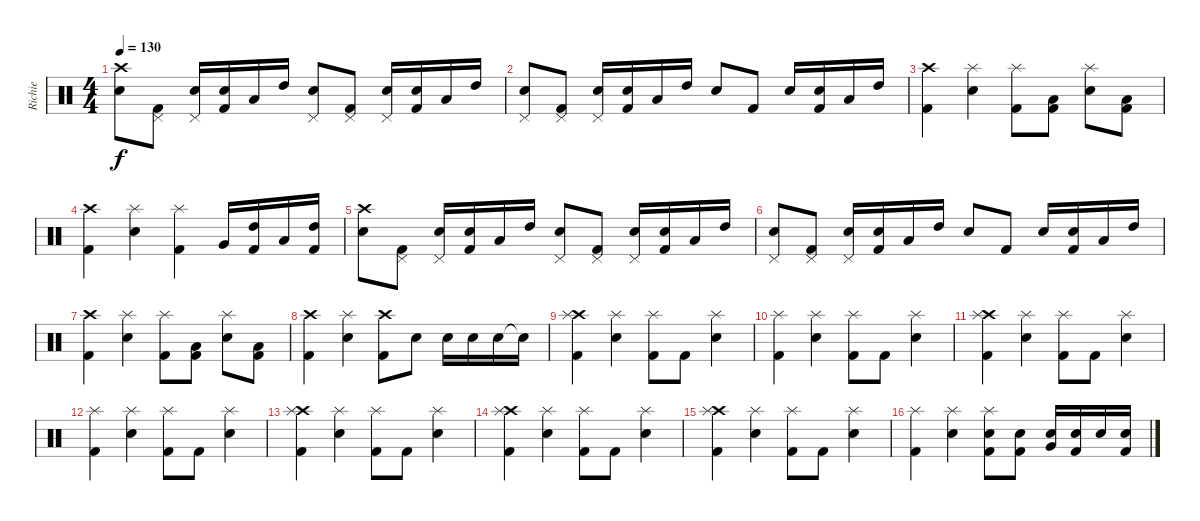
\track ("Richie" "Richie") {instrument percussion}
\staff {score}
\articulation defaults
\ts (4 4)
\tempo 130
\clef neutral
\ks c
("Crash high (hit)" "Snare (hit) 2").8{dy f} ("Pedal Hi-Hat (hit)" "Kick (hit) 2").8 ("Pedal Hi-Hat (hit)" "Electric Snare (hit)").16 ("Electric Snare (hit)" "Kick (hit) 2").16 "Low Tom (hit)".16 "High Tom (hit)".16 ("Pedal Hi-Hat (hit)" "Snare (hit) 2").8 ("Pedal Hi-Hat (hit)" "Kick (hit) 2").8 ("Pedal Hi-Hat (hit)" "Electric Snare (hit)").16 ("Electric Snare (hit)" "Kick (hit) 2").16 "Low Tom (hit)".16 "High Tom (hit)".16 |
("Pedal Hi-Hat (hit)" "Snare (hit) 2").8 ("Pedal Hi-Hat (hit)" "Kick (hit) 2").8 ("Pedal Hi-Hat (hit)" "Electric Snare (hit)").16 ("Electric Snare (hit)" "Kick (hit) 2").16 "Low Tom (hit)".16 "High Tom (hit)".16 "Snare (hit) 2".8 "Kick (hit) 2".8 "Electric Snare (hit)".16 ("Electric Snare (hit)" "Kick (hit) 2").16 "Low Tom (hit)".16 "High Tom (hit)".16 |
("Crash high (hit)" "Kick (hit) 2").4 ("Splash (hit)" "Electric Snare (hit)").4 ("Splash (hit)" "Kick (hit) 2").8 ("Low Tom (hit)" "Kick (hit) 2").8 ("Splash (hit)" "Electric Snare (hit)").8 ("Low Tom (hit)" "Kick (hit) 2").8 |
("Crash high (hit)" "Kick (hit) 2").4 ("Splash (hit)" "Electric Snare (hit)").4 ("Splash (hit)" "Kick (hit) 2").4 "Very Low Tom (hit)".16 ("High Tom (hit)" "Kick (hit) 2").16 "Low Tom (hit)".16 ("High Tom (hit)" "Kick (hit) 2").16 |
("Crash high (hit)" "Snare (hit) 2").8 ("Pedal Hi-Hat (hit)" "Kick (hit) 2").8 ("Pedal Hi-Hat (hit)" "Electric Snare (hit)").16 ("Electric Snare (hit)" "Kick (hit) 2").16 "Low Tom (hit)".16 "High Tom (hit)".16 ("Pedal Hi-Hat (hit)" "Snare (hit) 2").8 ("Pedal Hi-Hat (hit)" "Kick (hit) 2").8 ("Pedal Hi-Hat (hit)" "Electric Snare (hit)").16 ("Electric Snare (hit)" "Kick (hit) 2").16 "Low Tom (hit)".16 "High Tom (hit)".16 |
("Pedal Hi-Hat (hit)" "Snare (hit) 2").8 ("Pedal Hi-Hat (hit)" "Kick (hit) 2").8 ("Pedal Hi-Hat (hit)" "Electric Snare (hit)").16 ("Electric Snare (hit)" "Kick (hit) 2").16 "Low Tom (hit)".16 "High Tom (hit)".16 "Snare (hit) 2".8 "Kick (hit) 2".8 "Electric Snare (hit)".16 ("Electric Snare (hit)" "Kick (hit) 2").16 "Low Tom (hit)".16 "High Tom (hit)".16 |
("Crash high (hit)" "Kick (hit) 2").4 ("Splash (hit)" "Electric Snare (hit)").4 ("Splash (hit)" "Kick (hit) 2").8 ("Low Tom (hit)" "Kick (hit) 2").8 ("Splash (hit)" "Electric Snare (hit)").8 ("Low Tom (hit)" "Kick (hit) 2").8 |
("Crash high (hit)" "Kick (hit) 2").4 ("Splash (hit)" "Electric Snare (hit)").4 ("Crash high (hit)" "Kick (hit) 2").8 "Snare (hit) 2".8 "Snare (hit) 2".16 "Snare (hit) 2".16 "Snare (hit) 2".16 "Electric Snare (hit)"{t}.16 |
("Crash high (hit)" "Splash (hit)" "Kick (hit) 2").4 ("Splash (hit)" "Snare (hit) 2").4 ("Splash (hit)" "Kick (hit) 2").8 "Kick (hit) 2".8 ("Splash (hit)" "Snare (hit) 2").4 |
("Splash (hit)" "Kick (hit) 2").4 ("Splash (hit)" "Snare (hit) 2").4 ("Splash (hit)" "Kick (hit) 2").8 "Kick (hit) 2".8 ("Splash (hit)" "Snare (hit) 2").4 |
("Crash high (hit)" "Splash (hit)" "Kick (hit) 2").4 ("Splash (hit)" "Snare (hit) 2").4 ("Splash (hit)" "Kick (hit) 2").8 "Kick (hit) 2".8 ("Splash (hit)" "Snare (hit) 2").4 |
("Splash (hit)" "Kick (hit) 2").4 ("Splash (hit)" "Snare (hit) 2").4 ("Splash (hit)" "Kick (hit) 2").8 "Kick (hit) 2".8 ("Splash (hit)" "Snare (hit) 2").4 |
("Crash high (hit)" "Splash (hit)" "Kick (hit) 2").4 ("Splash (hit)" "Snare (hit) 2").4 ("Splash (hit)" "Kick (hit) 2").8 "Kick (hit) 2".8 ("Splash (hit)" "Snare (hit) 2").4 |
("Crash high (hit)" "Splash (hit)" "Kick (hit) 2").4 ("Splash (hit)" "Snare (hit) 2").4 ("Splash (hit)" "Kick (hit) 2").8 "Kick (hit) 2".8 ("Splash (hit)" "Snare (hit) 2").4 |
("Crash high (hit)" "Splash (hit)" "Kick (hit) 2").4 ("Splash (hit)" "Snare (hit) 2").4 ("Splash (hit)" "Kick (hit) 2").8 "Kick (hit) 2".8 ("Splash (hit)" "Snare (hit) 2").4 |
("Splash (hit)" "Kick (hit) 2").4 ("Splash (hit)" "Snare (hit) 2").4 ("Splash (hit)" "Electric Snare (hit)" "Kick (hit) 2").8 ("Snare (hit) 2" "Kick (hit) 2").8 ("Electric Snare (hit)" "Very Low Tom (hit)").16 ("Snare (hit) 2" "Kick (hit) 2").16 "Snare (hit) 2".16 ("Snare (hit) 2" "Kick (hit) 2").16
